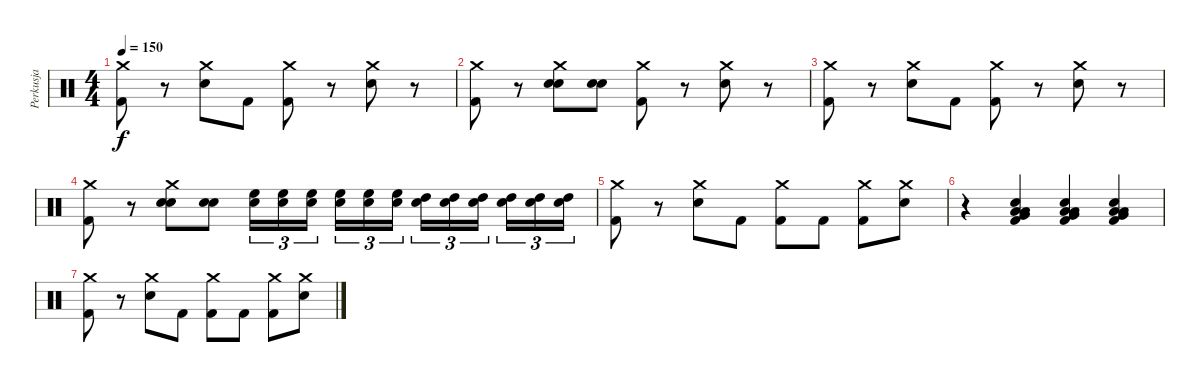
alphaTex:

\track ("Perkusja" "Perkusja") {instrument percussion}
\staff {score}
\articulation defaults
\ts (4 4)
\tempo 150
\clef neutral
\ks c
("Crash medium (hit)" "Kick (hit) 2").8{dy f} r.8 ("Crash medium (hit)" "Snare (hit) 2").8 "Kick (hit) 2".8 ("Crash medium (hit)" "Kick (hit) 2").8 r.8 ("Crash medium (hit)" "Snare (hit) 2").8 r.8 |
("Crash medium (hit)" "Kick (hit) 2").8 r.8 ("Crash medium (hit)" "Snare (hit) 2" "Electric Snare (hit)").8 ("Snare (hit) 2" "Electric Snare (hit)").8 ("Crash medium (hit)" "Kick (hit) 2").8 r.8 ("Crash medium (hit)" "Snare (hit) 2").8 r.8 |
("Crash medium (hit)" "Kick (hit) 2").8 r.8 ("Crash medium (hit)" "Snare (hit) 2").8 "Kick (hit) 2".8 ("Crash medium (hit)" "Kick (hit) 2").8 r.8 ("Crash medium (hit)" "Snare (hit) 2").8 r.8 |
("Crash medium (hit)" "Kick (hit) 2").8 r.8 ("Crash medium (hit)" "Snare (hit) 2" "Electric Snare (hit)").8 ("Snare (hit) 2" "Electric Snare (hit)").8 ("Electric Snare (hit)" "High Floor Tom (hit)").16{tu (3 2)} ("Electric Snare (hit)" "High Floor Tom (hit)").16{tu (3 2)} ("Electric Snare (hit)" "High Floor Tom (hit)").16{tu (3 2)} ("Electric Snare (hit)" "High Floor Tom (hit)").16{tu (3 2)} ("Electric Snare (hit)" "High Floor Tom (hit)").16{tu (3 2)} ("Electric Snare (hit)" "High Floor Tom (hit)").16{tu (3 2)} ("Electric Snare (hit)" "High Tom (hit)").16{tu (3 2)} ("Electric Snare (hit)" "High Tom (hit)").16{tu (3 2)} ("Electric Snare (hit)" "High Tom (hit)").16{tu (3 2)} ("Electric Snare (hit)" "High Tom (hit)").16{tu (3 2)} ("Electric Snare (hit)" "High Tom (hit)").16{tu (3 2)} ("Electric Snare (hit)" "High Tom (hit)").16{tu (3 2)} |
("Crash medium (hit)" "Kick (hit) 2").8 r.8 ("Crash medium (hit)" "Snare (hit) 2").8 "Kick (hit) 2".8 ("Crash medium (hit)" "Kick (hit) 2").8 "Kick (hit) 2".8 ("Crash medium (hit)" "Kick (hit) 2").8 ("Crash medium (hit)" "Snare (hit) 2").8 |
r.4 ("Low Floor Tom (hit)" "Very Low Tom (hit)" "Low Tom (hit)" "Kick (hit) 2" "Snare (hit) 2").4 ("Low Floor Tom (hit)" "Very Low Tom (hit)" "Low Tom (hit)" "Kick (hit) 2" "Snare (hit) 2").4 ("Low Floor Tom (hit)" "Very Low Tom (hit)" "Low Tom (hit)" "Kick (hit) 2" "Snare (hit) 2").4 |
("Crash medium (hit)" "Kick (hit) 2").8 r.8 ("Crash medium (hit)" "Snare (hit) 2").8 "Kick (hit) 2".8 ("Crash medium (hit)" "Kick (hit) 2").8 "Kick (hit) 2".8 ("Crash medium (hit)" "Kick (hit) 2").8 ("Crash medium (hit)" "Snare (hit) 2").8
